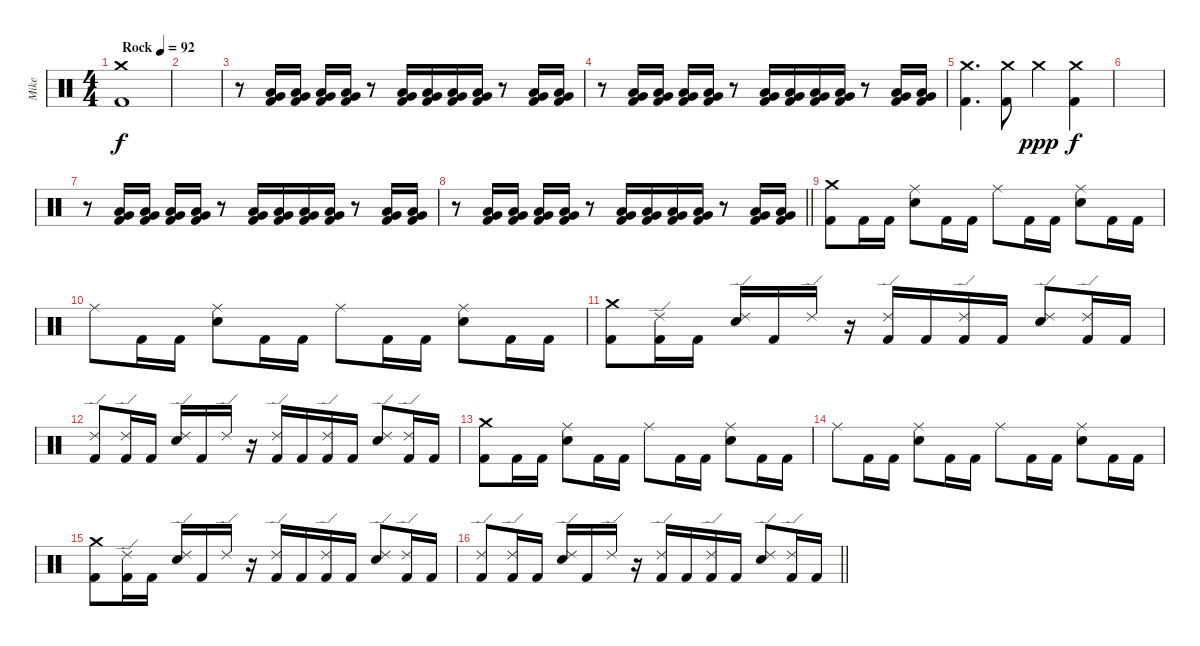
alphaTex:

\track ("Mike" "Mike") {instrument percussion}
\staff {score}
\articulation defaults
\ts (4 4)
\tempo (92 "Rock")
\clef neutral
\ks c
("Crash medium (hit)" "Kick (hit) 2").1{dy f} |
|
r.8 ("Low Floor Tom (hit)" "Very Low Tom (hit)" "Kick (hit) 2").16 ("Low Floor Tom (hit)" "Very Low Tom (hit)" "Kick (hit) 2").16 ("Low Floor Tom (hit)" "Very Low Tom (hit)" "Kick (hit) 2").16 ("Low Floor Tom (hit)" "Very Low Tom (hit)" "Kick (hit) 2").16 r.8 ("Low Floor Tom (hit)" "Very Low Tom (hit)" "Kick (hit) 2").16 ("Low Floor Tom (hit)" "Very Low Tom (hit)" "Kick (hit) 2").16 ("Low Floor Tom (hit)" "Very Low Tom (hit)" "Kick (hit) 2").16 ("Low Floor Tom (hit)" "Very Low Tom (hit)" "Kick (hit) 2").16 r.8 ("Low Floor Tom (hit)" "Very Low Tom (hit)" "Kick (hit) 2").16 ("Low Floor Tom (hit)" "Very Low Tom (hit)" "Kick (hit) 2").16 |
r.8 ("Low Floor Tom (hit)" "Very Low Tom (hit)" "Kick (hit) 2").16 ("Low Floor Tom (hit)" "Very Low Tom (hit)" "Kick (hit) 2").16 ("Low Floor Tom (hit)" "Very Low Tom (hit)" "Kick (hit) 2").16 ("Low Floor Tom (hit)" "Very Low Tom (hit)" "Kick (hit) 2").16 r.8 ("Low Floor Tom (hit)" "Very Low Tom (hit)" "Kick (hit) 2").16 ("Low Floor Tom (hit)" "Very Low Tom (hit)" "Kick (hit) 2").16 ("Low Floor Tom (hit)" "Very Low Tom (hit)" "Kick (hit) 2").16 ("Low Floor Tom (hit)" "Very Low Tom (hit)" "Kick (hit) 2").16 r.8 ("Low Floor Tom (hit)" "Very Low Tom (hit)" "Kick (hit) 2").16 ("Low Floor Tom (hit)" "Very Low Tom (hit)" "Kick (hit) 2").16 |
("Crash medium (hit)" "Kick (hit) 2").4{d} ("Crash medium (hit)" "Kick (hit) 2").8 "Crash medium (hit)".4{dy ppp} ("Crash medium (hit)" "Kick (hit) 2").4{dy f} |
|
r.8 ("Low Floor Tom (hit)" "Very Low Tom (hit)" "Kick (hit) 2").16 ("Low Floor Tom (hit)" "Very Low Tom (hit)" "Kick (hit) 2").16 ("Low Floor Tom (hit)" "Very Low Tom (hit)" "Kick (hit) 2").16 ("Low Floor Tom (hit)" "Very Low Tom (hit)" "Kick (hit) 2").16 r.8 ("Low Floor Tom (hit)" "Very Low Tom (hit)" "Kick (hit) 2").16 ("Low Floor Tom (hit)" "Very Low Tom (hit)" "Kick (hit) 2").16 ("Low Floor Tom (hit)" "Very Low Tom (hit)" "Kick (hit) 2").16 ("Low Floor Tom (hit)" "Very Low Tom (hit)" "Kick (hit) 2").16 r.8 ("Low Floor Tom (hit)" "Very Low Tom (hit)" "Kick (hit) 2").16 ("Low Floor Tom (hit)" "Very Low Tom (hit)" "Kick (hit) 2").16 |
\barLineRight lightlight
r.8 ("Low Floor Tom (hit)" "Very Low Tom (hit)" "Kick (hit) 2").16 ("Low Floor Tom (hit)" "Very Low Tom (hit)" "Kick (hit) 2").16 ("Low Floor Tom (hit)" "Very Low Tom (hit)" "Kick (hit) 2").16 ("Low Floor Tom (hit)" "Very Low Tom (hit)" "Kick (hit) 2").16 r.8 ("Low Floor Tom (hit)" "Very Low Tom (hit)" "Kick (hit) 2").16 ("Low Floor Tom (hit)" "Very Low Tom (hit)" "Kick (hit) 2").16 ("Low Floor Tom (hit)" "Very Low Tom (hit)" "Kick (hit) 2").16 ("Low Floor Tom (hit)" "Very Low Tom (hit)" "Kick (hit) 2").16 r.8 ("Low Floor Tom (hit)" "Very Low Tom (hit)" "Kick (hit) 2").16 ("Low Floor Tom (hit)" "Very Low Tom (hit)" "Kick (hit) 2").16 |
("Crash medium (hit)" "Kick (hit) 2").8 "Kick (hit) 2".16 "Kick (hit) 2".16 ("Ride (middle)" "Snare (hit) 2").8 "Kick (hit) 2".16 "Kick (hit) 2".16 "Ride (middle)".8 "Kick (hit) 2".16 "Kick (hit) 2".16 ("Ride (middle)" "Snare (hit) 2").8 "Kick (hit) 2".16 "Kick (hit) 2".16 |
"Ride (middle)".8 "Kick (hit) 2".16 "Kick (hit) 2".16 ("Ride (middle)" "Snare (hit) 2").8 "Kick (hit) 2".16 "Kick (hit) 2".16 "Ride (middle)".8 "Kick (hit) 2".16 "Kick (hit) 2".16 ("Ride (middle)" "Snare (hit) 2").8 "Kick (hit) 2".16 "Kick (hit) 2".16 |
("Crash medium (hit)" "Kick (hit) 2").8 ("Ride (edge) 2" "Kick (hit) 2").16 "Kick (hit) 2".16 ("Ride (edge) 2" "Snare (hit) 2").16 "Kick (hit) 2".16 "Ride (edge) 2".16 r.16 ("Ride (edge) 2" "Kick (hit) 2").16 "Kick (hit) 2".16 ("Ride (edge) 2" "Kick (hit) 2").16 "Kick (hit) 2".16 ("Ride (edge) 2" "Snare (hit) 2").8 ("Ride (edge) 2" "Kick (hit) 2").16 "Kick (hit) 2".16 |
("Ride (edge) 2" "Kick (hit) 2").8 ("Ride (edge) 2" "Kick (hit) 2").16 "Kick (hit) 2".16 ("Ride (edge) 2" "Snare (hit) 2").16 "Kick (hit) 2".16 "Ride (edge) 2".16 r.16 ("Ride (edge) 2" "Kick (hit) 2").16 "Kick (hit) 2".16 ("Ride (edge) 2" "Kick (hit) 2").16 "Kick (hit) 2".16 ("Ride (edge) 2" "Snare (hit) 2").8 ("Ride (edge) 2" "Kick (hit) 2").16 "Kick (hit) 2".16 |
("Crash medium (hit)" "Kick (hit) 2").8 "Kick (hit) 2".16 "Kick (hit) 2".16 ("Ride (middle)" "Snare (hit) 2").8 "Kick (hit) 2".16 "Kick (hit) 2".16 "Ride (middle)".8 "Kick (hit) 2".16 "Kick (hit) 2".16 ("Ride (middle)" "Snare (hit) 2").8 "Kick (hit) 2".16 "Kick (hit) 2".16 |
"Ride (middle)".8 "Kick (hit) 2".16 "Kick (hit) 2".16 ("Ride (middle)" "Snare (hit) 2").8 "Kick (hit) 2".16 "Kick (hit) 2".16 "Ride (middle)".8 "Kick (hit) 2".16 "Kick (hit) 2".16 ("Ride (middle)" "Snare (hit) 2").8 "Kick (hit) 2".16 "Kick (hit) 2".16 |
("Crash medium (hit)" "Kick (hit) 2").8 ("Ride (edge) 2" "Kick (hit) 2").16 "Kick (hit) 2".16 ("Ride (edge) 2" "Snare (hit) 2").16 "Kick (hit) 2".16 "Ride (edge) 2".16 r.16 ("Ride (edge) 2" "Kick (hit) 2").16 "Kick (hit) 2".16 ("Ride (edge) 2" "Kick (hit) 2").16 "Kick (hit) 2".16 ("Ride (edge) 2" "Snare (hit) 2").8 ("Ride (edge) 2" "Kick (hit) 2").16 "Kick (hit) 2".16 |
\barLineRight lightlight
("Ride (edge) 2" "Kick (hit) 2").8 ("Ride (edge) 2" "Kick (hit) 2").16 "Kick (hit) 2".16 ("Ride (edge) 2" "Snare (hit) 2").16 "Kick (hit) 2".16 "Ride (edge) 2".16 r.16 ("Ride (edge) 2" "Kick (hit) 2").16 "Kick (hit) 2".16 ("Ride (edge) 2" "Kick (hit) 2").16 "Kick (hit) 2".16 ("Ride (edge) 2" "Snare (hit) 2").8 ("Ride (edge) 2" "Kick (hit) 2").16 "Kick (hit) 2".16
